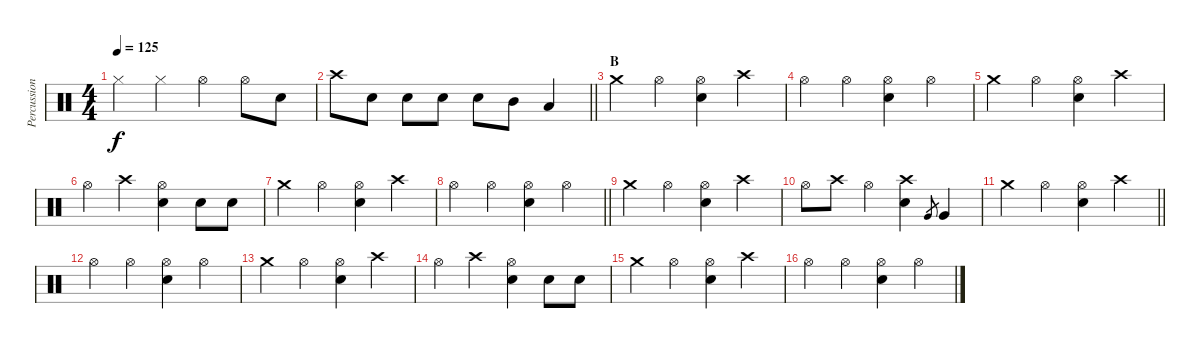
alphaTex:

\track ("Percussion" "Percussion") {instrument percussion}
\staff {score}
\articulation defaults
\ts (4 4)
\tempo 125
\clef neutral
\ks c "Hi-Hat (closed)".4{dy f} "Hi-Hat (closed)".4 "Hi-Hat (open)".4 "Hi-Hat (open)".8 "Snare (hit) 2".8
|
\barLineRight lightlight "Crash high (hit)".8 "Snare (hit) 2".8 "Snare (hit) 2".8 "Snare (hit) 2".8 "Snare (hit) 2".8 "Mid Tom (hit)".8 "Low Tom (hit)".4
|
\section ("" "B")
"Crash medium (hit)".4 "Hi-Hat (open)".4 ("Hi-Hat (open)" "Snare (hit) 2").4 "Crash high (hit)".4 |
"Hi-Hat (open)".4 "Hi-Hat (open)".4 ("Hi-Hat (open)" "Snare (hit) 2").4 "Hi-Hat (open)".4 |
"Crash medium (hit)".4 "Hi-Hat (open)".4 ("Hi-Hat (open)" "Snare (hit) 2").4 "Crash high (hit)".4 |
"Hi-Hat (open)".4 "Crash high (hit)".4 ("Hi-Hat (open)" "Snare (hit) 2").4 "Snare (hit) 2".8 "Snare (hit) 2".8 |
"Crash medium (hit)".4 "Hi-Hat (open)".4 ("Hi-Hat (open)" "Snare (hit) 2").4 "Crash high (hit)".4 |
\barLineRight lightlight "Hi-Hat (open)".4 "Hi-Hat (open)".4
("Hi-Hat (open)" "Snare (hit) 2").4 "Hi-Hat (open)".4 |
"Crash medium (hit)".4 "Hi-Hat (open)".4 ("Hi-Hat (open)" "Snare (hit) 2").4 "Crash high (hit)".4 |
"Hi-Hat (open)".8 "Crash high (hit)".8 "Hi-Hat (open)".4 ("Crash high (hit)" "Snare (hit) 2").4 "Very Low Tom (hit)".8{gr} "Very Low Tom (hit)".4 |
\barLineRight lightlight "Crash medium (hit)".4 "Hi-Hat (open)".4
("Hi-Hat (open)" "Snare (hit) 2").4 "Crash high (hit)".4 |
"Hi-Hat (open)".4 "Hi-Hat (open)".4 ("Hi-Hat (open)" "Snare (hit) 2").4 "Hi-Hat (open)".4 |
"Crash medium (hit)".4 "Hi-Hat (open)".4 ("Hi-Hat (open)" "Snare (hit) 2").4 "Crash high (hit)".4 |
"Hi-Hat (open)".4 "Crash high (hit)".4 ("Hi-Hat (open)" "Snare (hit) 2").4 "Snare (hit) 2".8 "Snare (hit) 2".8 |
"Crash medium (hit)".4 "Hi-Hat (open)".4 ("Hi-Hat (open)" "Snare (hit) 2").4 "Crash high (hit)".4 |
"Hi-Hat (open)".4 "Hi-Hat (open)".4 ("Hi-Hat (open)" "Snare (hit) 2").4 "Hi-Hat (open)".4
